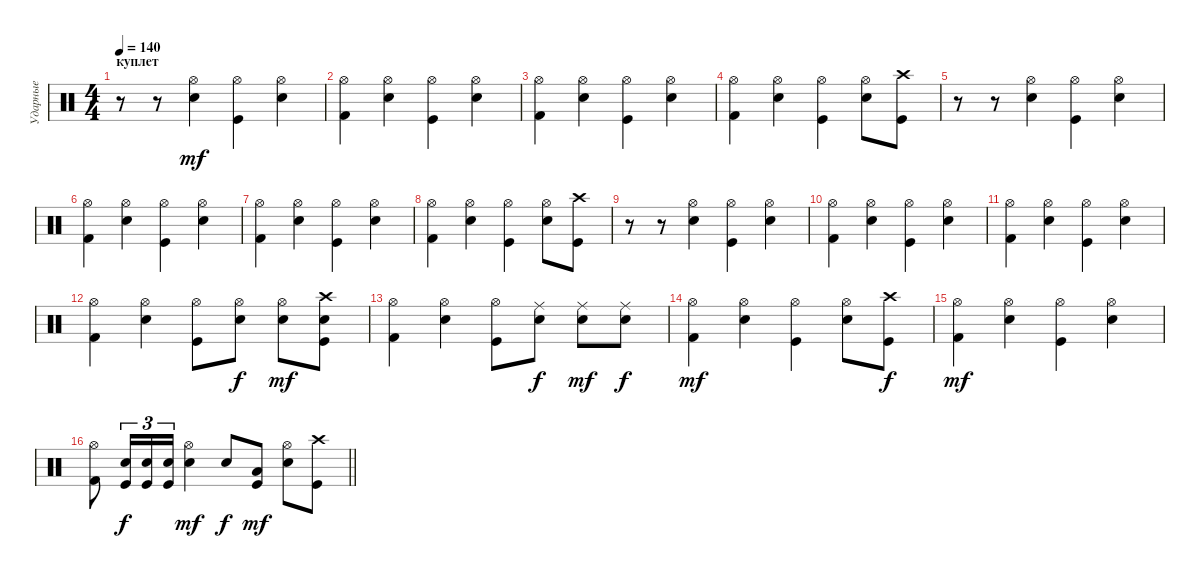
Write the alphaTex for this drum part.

\track ("Ударные" "Ударные") {instrument percussion}
\staff {score}
\articulation defaults
\ts (4 4)
\section ("" "куплет")
\tempo 140
\clef neutral
\ks c
r.8{dy mf} r.8 ("Electric Snare (hit)" "Hi-Hat (open)").4 ("Kick (hit)" "Hi-Hat (open)").4 ("Electric Snare (hit)" "Hi-Hat (open)").4 |
("Kick (hit) 2" "Hi-Hat (open)").4 ("Electric Snare (hit)" "Hi-Hat (open)").4 ("Kick (hit)" "Hi-Hat (open)").4 ("Electric Snare (hit)" "Hi-Hat (open)").4 |
("Kick (hit) 2" "Hi-Hat (open)").4 ("Electric Snare (hit)" "Hi-Hat (open)").4 ("Kick (hit)" "Hi-Hat (open)").4 ("Electric Snare (hit)" "Hi-Hat (open)").4 |
("Kick (hit) 2" "Hi-Hat (open)").4 ("Electric Snare (hit)" "Hi-Hat (open)").4 ("Kick (hit)" "Hi-Hat (open)").4 ("Electric Snare (hit)" "Hi-Hat (open)").8 ("Kick (hit)" "Crash high (hit)").8 |
r.8 r.8 ("Electric Snare (hit)" "Hi-Hat (open)").4 ("Kick (hit)" "Hi-Hat (open)").4 ("Electric Snare (hit)" "Hi-Hat (open)").4 |
("Kick (hit) 2" "Hi-Hat (open)").4 ("Electric Snare (hit)" "Hi-Hat (open)").4 ("Kick (hit)" "Hi-Hat (open)").4 ("Electric Snare (hit)" "Hi-Hat (open)").4 |
("Kick (hit) 2" "Hi-Hat (open)").4 ("Electric Snare (hit)" "Hi-Hat (open)").4 ("Kick (hit)" "Hi-Hat (open)").4 ("Electric Snare (hit)" "Hi-Hat (open)").4 |
("Kick (hit) 2" "Hi-Hat (open)").4 ("Electric Snare (hit)" "Hi-Hat (open)").4 ("Kick (hit)" "Hi-Hat (open)").4 ("Electric Snare (hit)" "Hi-Hat (open)").8 ("Kick (hit)" "Crash high (hit)").8 |
r.8 r.8 ("Electric Snare (hit)" "Hi-Hat (open)").4 ("Kick (hit)" "Hi-Hat (open)").4 ("Electric Snare (hit)" "Hi-Hat (open)").4 |
("Kick (hit) 2" "Hi-Hat (open)").4 ("Electric Snare (hit)" "Hi-Hat (open)").4 ("Kick (hit)" "Hi-Hat (open)").4 ("Electric Snare (hit)" "Hi-Hat (open)").4 |
("Kick (hit) 2" "Hi-Hat (open)").4 ("Electric Snare (hit)" "Hi-Hat (open)").4 ("Kick (hit)" "Hi-Hat (open)").4 ("Electric Snare (hit)" "Hi-Hat (open)").4 |
("Kick (hit) 2" "Hi-Hat (open)").4 ("Electric Snare (hit)" "Hi-Hat (open)").4 ("Kick (hit)" "Hi-Hat (open)").8 ("Electric Snare (hit)" "Hi-Hat (open)").8{dy f} ("Electric Snare (hit)" "Hi-Hat (open)").8{dy mf} ("Kick (hit)" "Electric Snare (hit)" "Crash high (hit)").8 |
("Kick (hit) 2" "Hi-Hat (open)").4 ("Electric Snare (hit)" "Hi-Hat (open)").4 ("Kick (hit)" "Hi-Hat (open)").8 ("Electric Snare (hit)" "Ride (middle)").8{dy f} ("Electric Snare (hit)" "Ride (middle)").8{dy mf} ("Electric Snare (hit)" "Ride (middle)").8{dy f} |
("Kick (hit) 2" "Hi-Hat (open)").4{dy mf} ("Electric Snare (hit)" "Hi-Hat (open)").4 ("Kick (hit)" "Hi-Hat (open)").4 ("Electric Snare (hit)" "Hi-Hat (open)").8 ("Kick (hit)" "Crash high (hit)").8{dy f} |
("Kick (hit) 2" "Hi-Hat (open)").4{dy mf} ("Electric Snare (hit)" "Hi-Hat (open)").4 ("Kick (hit)" "Hi-Hat (open)").4 ("Electric Snare (hit)" "Hi-Hat (open)").4 |
\barLineRight lightlight
("Kick (hit) 2" "Hi-Hat (open)").8 ("Kick (hit)" "Electric Snare (hit)").16{tu (3 2) dy f} ("Kick (hit)" "Electric Snare (hit)").16{tu (3 2)} ("Kick (hit)" "Electric Snare (hit)").16{tu (3 2)} ("Electric Snare (hit)" "Hi-Hat (open)").4{dy mf} "Electric Snare (hit)".8{dy f} ("Kick (hit)" "Low Floor Tom (hit)").8{dy mf} ("Electric Snare (hit)" "Hi-Hat (open)").8 ("Kick (hit)" "Crash high (hit)").8
